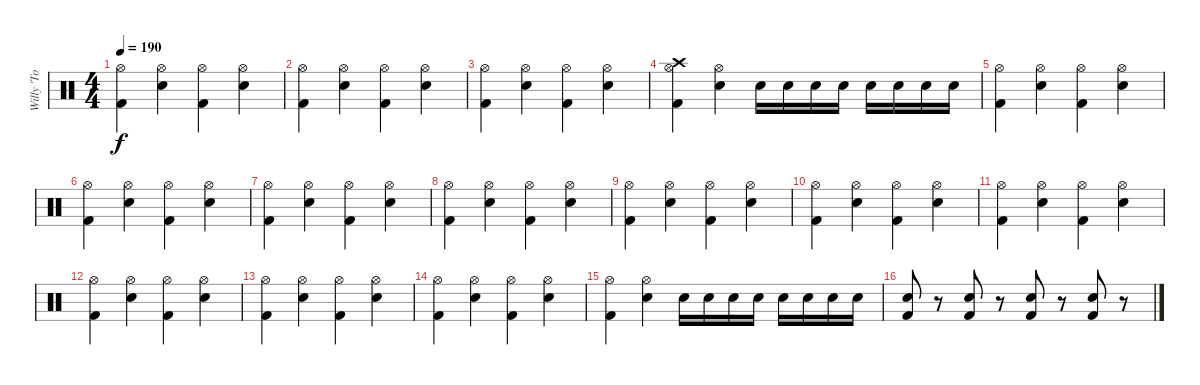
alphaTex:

\track ("Willy 'To Big' Hall" "Willy 'To ") {instrument percussion}
\staff {score}
\articulation defaults
\ts (4 4)
\tempo 190
\clef neutral
\ks c
("Hi-Hat (open)" "Kick (hit) 2").4{dy f} ("Hi-Hat (open)" "Snare (hit) 2").4 ("Hi-Hat (open)" "Kick (hit) 2").4 ("Hi-Hat (open)" "Snare (hit) 2").4 |
("Hi-Hat (open)" "Kick (hit) 2").4 ("Hi-Hat (open)" "Snare (hit) 2").4 ("Hi-Hat (open)" "Kick (hit) 2").4 ("Hi-Hat (open)" "Snare (hit) 2").4 |
("Hi-Hat (open)" "Kick (hit) 2").4 ("Hi-Hat (open)" "Snare (hit) 2").4 ("Hi-Hat (open)" "Kick (hit) 2").4 ("Hi-Hat (open)" "Snare (hit) 2").4 |
("Hi-Hat (open)" "Kick (hit) 2" "Crash high (hit)").4 ("Hi-Hat (open)" "Snare (hit) 2").4 "Snare (hit) 2".16 "Snare (hit) 2".16 "Snare (hit) 2".16 "Snare (hit) 2".16 "Snare (hit) 2".16 "Snare (hit) 2".16 "Snare (hit) 2".16 "Snare (hit) 2".16 |
("Hi-Hat (open)" "Kick (hit) 2").4 ("Hi-Hat (open)" "Snare (hit) 2").4 ("Hi-Hat (open)" "Kick (hit) 2").4 ("Hi-Hat (open)" "Snare (hit) 2").4 |
("Hi-Hat (open)" "Kick (hit) 2").4 ("Hi-Hat (open)" "Snare (hit) 2").4 ("Hi-Hat (open)" "Kick (hit) 2").4 ("Hi-Hat (open)" "Snare (hit) 2").4 |
("Hi-Hat (open)" "Kick (hit) 2").4 ("Hi-Hat (open)" "Snare (hit) 2").4 ("Hi-Hat (open)" "Kick (hit) 2").4 ("Hi-Hat (open)" "Snare (hit) 2").4 |
("Hi-Hat (open)" "Kick (hit) 2").4 ("Hi-Hat (open)" "Snare (hit) 2").4 ("Hi-Hat (open)" "Kick (hit) 2").4 ("Hi-Hat (open)" "Snare (hit) 2").4 |
("Hi-Hat (open)" "Kick (hit) 2").4 ("Hi-Hat (open)" "Snare (hit) 2").4 ("Hi-Hat (open)" "Kick (hit) 2").4 ("Hi-Hat (open)" "Snare (hit) 2").4 |
("Hi-Hat (open)" "Kick (hit) 2").4 ("Hi-Hat (open)" "Snare (hit) 2").4 ("Hi-Hat (open)" "Kick (hit) 2").4 ("Hi-Hat (open)" "Snare (hit) 2").4 |
("Hi-Hat (open)" "Kick (hit) 2").4 ("Hi-Hat (open)" "Snare (hit) 2").4 ("Hi-Hat (open)" "Kick (hit) 2").4 ("Hi-Hat (open)" "Snare (hit) 2").4 |
("Hi-Hat (open)" "Kick (hit) 2").4 ("Hi-Hat (open)" "Snare (hit) 2").4 ("Hi-Hat (open)" "Kick (hit) 2").4 ("Hi-Hat (open)" "Snare (hit) 2").4 |
("Hi-Hat (open)" "Kick (hit) 2").4 ("Hi-Hat (open)" "Snare (hit) 2").4 ("Hi-Hat (open)" "Kick (hit) 2").4 ("Hi-Hat (open)" "Snare (hit) 2").4 |
("Hi-Hat (open)" "Kick (hit) 2").4 ("Hi-Hat (open)" "Snare (hit) 2").4 ("Hi-Hat (open)" "Kick (hit) 2").4 ("Hi-Hat (open)" "Snare (hit) 2").4 |
("Hi-Hat (open)" "Kick (hit) 2").4 ("Hi-Hat (open)" "Snare (hit) 2").4 "Snare (hit) 2".16 "Snare (hit) 2".16 "Snare (hit) 2".16 "Snare (hit) 2".16 "Snare (hit) 2".16 "Snare (hit) 2".16 "Snare (hit) 2".16 "Snare (hit) 2".16 |
("Kick (hit) 2" "Snare (hit) 2").8 r.8 ("Snare (hit) 2" "Kick (hit) 2").8 r.8 ("Snare (hit) 2" "Kick (hit) 2").8 r.8 ("Snare (hit) 2" "Kick (hit) 2").8 r.8
